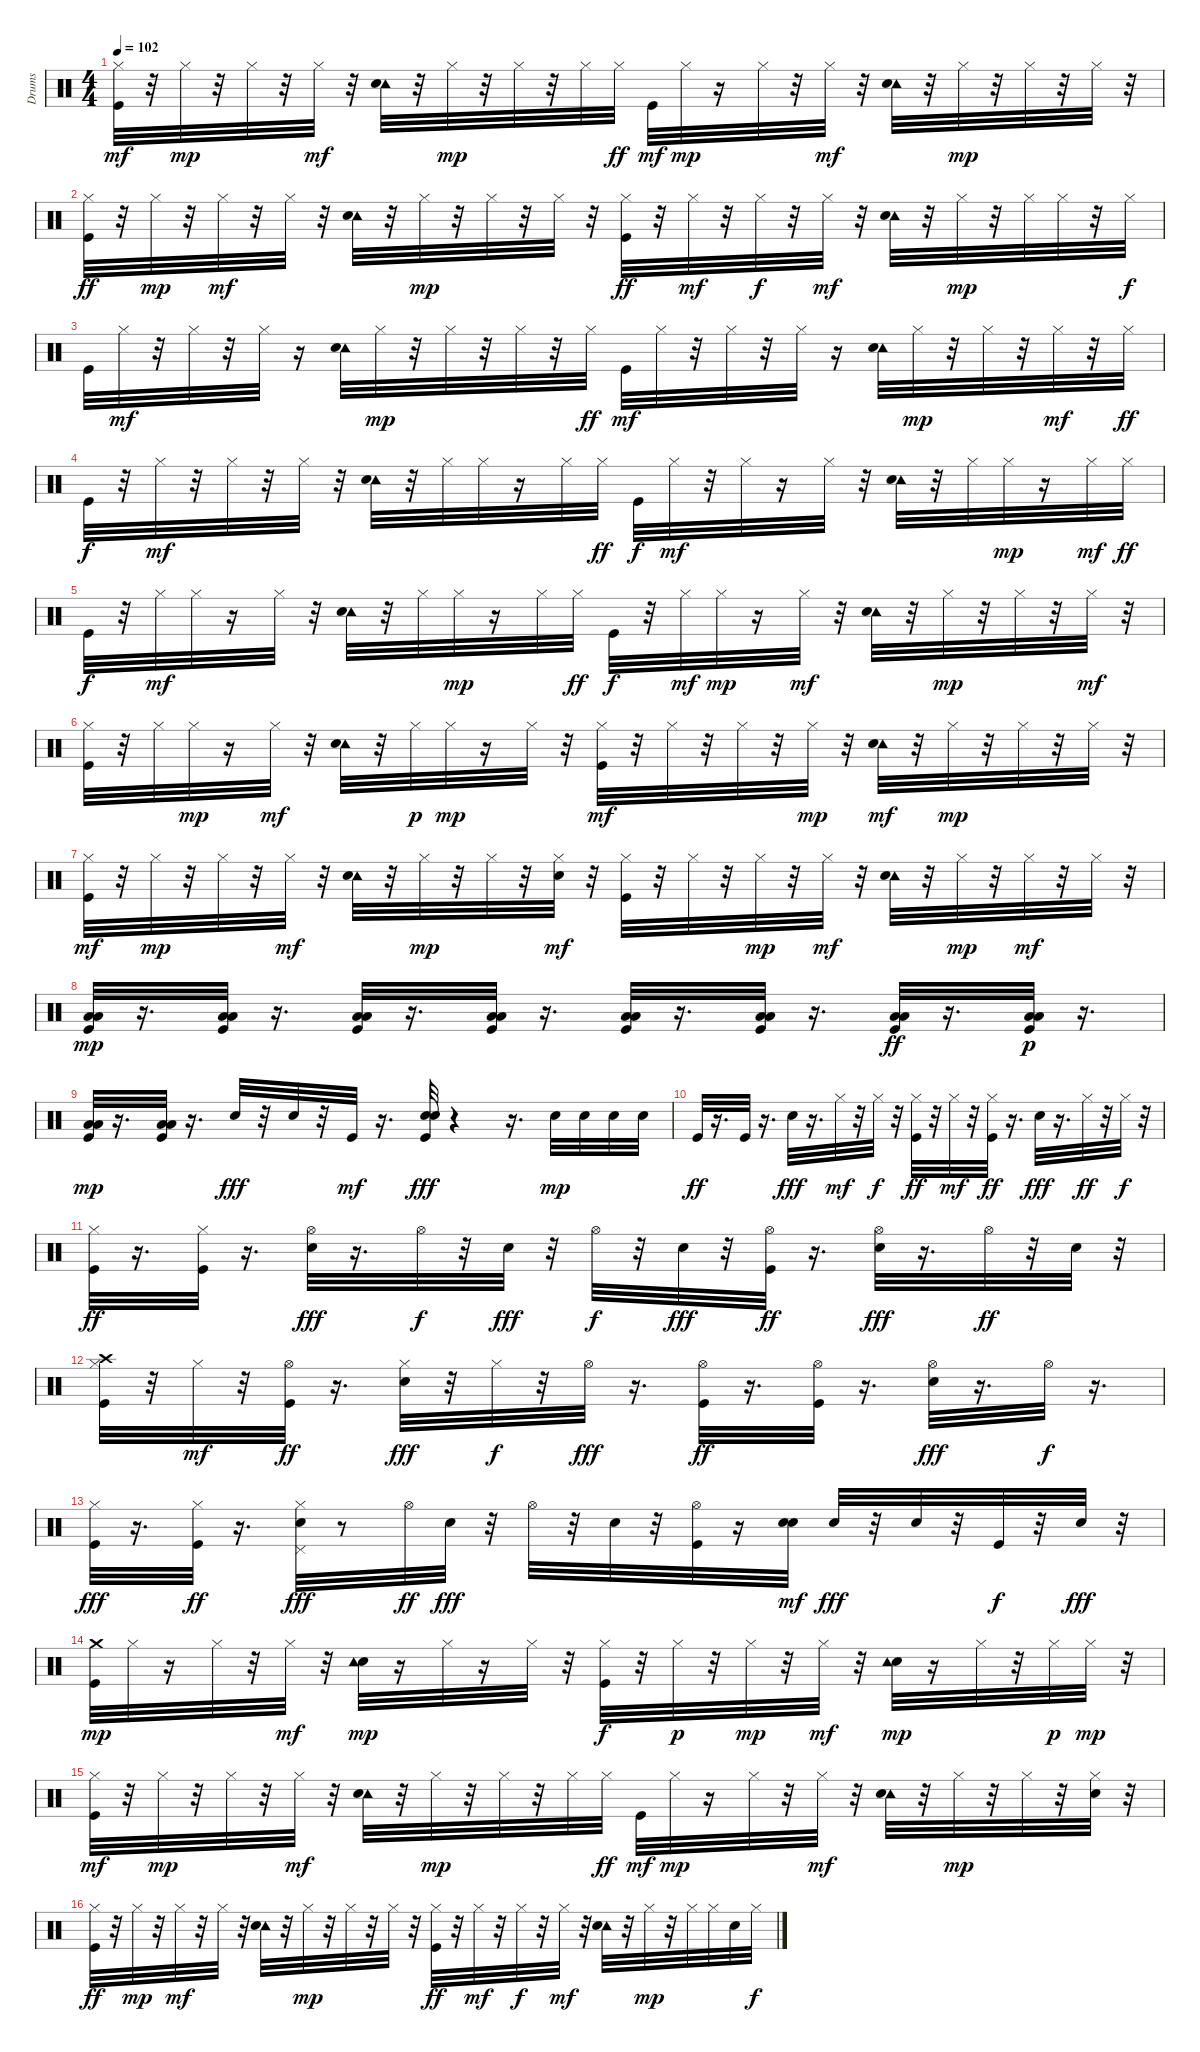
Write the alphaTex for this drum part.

\track ("Drums" "Drums") {instrument percussion}
\staff {score}
\articulation defaults
\ts (4 4)
\tempo 102
\clef neutral
\ks c
("Hi-Hat (closed)" "Kick (hit)").32{dy mf} r.32 "Hi-Hat (closed)".32{dy mp} r.32 "Hi-Hat (closed)".32 r.32 "Hi-Hat (closed)".32{dy mf} r.32 ("Tambourine (hit)" "Electric Snare (hit)").32 r.32 "Hi-Hat (closed)".32{dy mp} r.32 "Hi-Hat (closed)".32 r.32 "Hi-Hat (closed)".32 "Hi-Hat (closed)".32{dy ff} "Kick (hit)".32{dy mf} "Hi-Hat (closed)".32{dy mp} r.16 "Hi-Hat (closed)".32 r.32 "Hi-Hat (closed)".32{dy mf} r.32 ("Tambourine (hit)" "Electric Snare (hit)").32 r.32 "Hi-Hat (closed)".32{dy mp} r.32 "Hi-Hat (closed)".32 r.32 "Hi-Hat (closed)".32 r.32 |
("Kick (hit)" "Hi-Hat (closed)").32{dy ff} r.32 "Hi-Hat (closed)".32{dy mp} r.32 "Hi-Hat (closed)".32{dy mf} r.32 "Hi-Hat (closed)".32 r.32 ("Tambourine (hit)" "Electric Snare (hit)").32 r.32 "Hi-Hat (closed)".32{dy mp} r.32 "Hi-Hat (closed)".32 r.32 "Hi-Hat (closed)".32 r.32 ("Kick (hit)" "Hi-Hat (closed)").32{dy ff} r.32 "Hi-Hat (closed)".32{dy mf} r.32 "Hi-Hat (closed)".32{dy f} r.32 "Hi-Hat (closed)".32{dy mf} r.32 ("Tambourine (hit)" "Electric Snare (hit)").32 r.32 "Hi-Hat (closed)".32{dy mp} r.32 "Hi-Hat (closed)".32 "Hi-Hat (closed)".32 r.32 "Hi-Hat (closed)".32{dy f} |
"Kick (hit)".32 "Hi-Hat (closed)".32{dy mf} r.32 "Hi-Hat (closed)".32 r.32 "Hi-Hat (closed)".32 r.16 ("Tambourine (hit)" "Electric Snare (hit)").32 "Hi-Hat (closed)".32{dy mp} r.32 "Hi-Hat (closed)".32 r.32 "Hi-Hat (closed)".32 r.32 "Hi-Hat (closed)".32{dy ff} "Kick (hit)".32{dy mf} "Hi-Hat (closed)".32 r.32 "Hi-Hat (closed)".32 r.32 "Hi-Hat (closed)".32 r.16 ("Tambourine (hit)" "Electric Snare (hit)").32 "Hi-Hat (closed)".32{dy mp} r.32 "Hi-Hat (closed)".32 r.32 "Hi-Hat (closed)".32{dy mf} r.32 "Hi-Hat (closed)".32{dy ff} |
"Kick (hit)".32{dy f} r.32 "Hi-Hat (closed)".32{dy mf} r.32 "Hi-Hat (closed)".32 r.32 "Hi-Hat (closed)".32 r.32 ("Tambourine (hit)" "Electric Snare (hit)").32 r.32 "Hi-Hat (closed)".32 "Hi-Hat (closed)".32 r.16 "Hi-Hat (closed)".32 "Hi-Hat (closed)".32{dy ff} "Kick (hit)".32{dy f} "Hi-Hat (closed)".32{dy mf} r.32 "Hi-Hat (closed)".32 r.16 "Hi-Hat (closed)".32 r.32 ("Tambourine (hit)" "Electric Snare (hit)").32 r.32 "Hi-Hat (closed)".32 "Hi-Hat (closed)".32{dy mp} r.16 "Hi-Hat (closed)".32{dy mf} "Hi-Hat (closed)".32{dy ff} |
"Kick (hit)".32{dy f} r.32 "Hi-Hat (closed)".32{dy mf} "Hi-Hat (closed)".32 r.16 "Hi-Hat (closed)".32 r.32 ("Tambourine (hit)" "Electric Snare (hit)").32 r.32 "Hi-Hat (closed)".32 "Hi-Hat (closed)".32{dy mp} r.16 "Hi-Hat (closed)".32 "Hi-Hat (closed)".32{dy ff} "Kick (hit)".32{dy f} r.32 "Hi-Hat (closed)".32{dy mf} "Hi-Hat (closed)".32{dy mp} r.16 "Hi-Hat (closed)".32{dy mf} r.32 ("Tambourine (hit)" "Electric Snare (hit)").32 r.32 "Hi-Hat (closed)".32{dy mp} r.32 "Hi-Hat (closed)".32 r.32 "Hi-Hat (closed)".32{dy mf} r.32 |
("Hi-Hat (closed)" "Kick (hit)").32 r.32 "Hi-Hat (closed)".32 "Hi-Hat (closed)".32{dy mp} r.16 "Hi-Hat (closed)".32{dy mf} r.32 ("Tambourine (hit)" "Electric Snare (hit)").32 r.32 "Hi-Hat (closed)".32{dy p} "Hi-Hat (closed)".32{dy mp} r.16 "Hi-Hat (closed)".32 r.32 ("Hi-Hat (closed)" "Kick (hit)").32{dy mf} r.32 "Hi-Hat (closed)".32 r.32 "Hi-Hat (closed)".32 r.32 "Hi-Hat (closed)".32{dy mp} r.32 ("Tambourine (hit)" "Electric Snare (hit)").32{dy mf} r.32 "Hi-Hat (closed)".32{dy mp} r.32 "Hi-Hat (closed)".32 r.32 "Hi-Hat (closed)".32 r.32 |
("Hi-Hat (closed)" "Kick (hit)").32{dy mf} r.32 "Hi-Hat (closed)".32{dy mp} r.32 "Hi-Hat (closed)".32 r.32 "Hi-Hat (closed)".32{dy mf} r.32 ("Tambourine (hit)" "Electric Snare (hit)").32 r.32 "Hi-Hat (closed)".32{dy mp} r.32 "Hi-Hat (closed)".32 r.32 ("Hi-Hat (closed)" "Electric Snare (hit)").32{dy mf} r.32 ("Hi-Hat (closed)" "Kick (hit)").32 r.32 "Hi-Hat (closed)".32 r.32 "Hi-Hat (closed)".32{dy mp} r.32 "Hi-Hat (closed)".32{dy mf} r.32 ("Tambourine (hit)" "Electric Snare (hit)").32 r.32 "Hi-Hat (closed)".32{dy mp} r.32 "Hi-Hat (closed)".32{dy mf} r.32 "Hi-Hat (closed)".32 r.32 |
("Low Tom (hit)" "Kick (hit)" "Low Floor Tom (hit)").32{dy mp} r.16{d} ("Low Tom (hit)" "Kick (hit)" "Low Floor Tom (hit)").32 r.16{d} ("Low Tom (hit)" "Kick (hit)" "Low Floor Tom (hit)").32 r.16{d} ("Low Tom (hit)" "Kick (hit)" "Low Floor Tom (hit)").32 r.16{d} ("Kick (hit)" "Low Tom (hit)" "Low Floor Tom (hit)").32 r.16{d} ("Low Tom (hit)" "Kick (hit)" "Low Floor Tom (hit)").32 r.16{d} ("Low Tom (hit)" "Kick (hit)" "Low Floor Tom (hit)").32{dy ff} r.16{d} ("Kick (hit)" "Low Tom (hit)" "Low Floor Tom (hit)").32{dy p} r.16{d} |
("Low Tom (hit)" "Kick (hit)" "Low Floor Tom (hit)").32{dy mp} r.16{d} ("Kick (hit)" "Low Tom (hit)" "Low Floor Tom (hit)").32 r.16{d} "Electric Snare (hit)".32{dy fff} r.32 "Electric Snare (hit)".32 r.32 "Kick (hit)".32{dy mf} r.16{d} ("Electric Snare (hit)" "Kick (hit)" "Electric Snare (hit)").32{dy fff} r.4 r.16{d} "Snare (hit) 2".32{dy mp} "Snare (hit) 2".32 "Snare (hit) 2".32 "Snare (hit) 2".32 |
"Kick (hit)".32{dy ff} r.16{d} "Kick (hit)".32 r.16{d} "Electric Snare (hit)".32{dy fff} r.16{d} "Hi-Hat (closed)".32{dy mf} r.32 "Hi-Hat (closed)".32{dy f} r.32 ("Kick (hit)" "Hi-Hat (closed)").32{dy ff} r.32 "Hi-Hat (closed)".32{dy mf} r.32 ("Hi-Hat (closed)" "Kick (hit)").32{dy ff} r.16{d} "Electric Snare (hit)".32{dy fff} r.16{d} "Hi-Hat (closed)".32{dy ff} r.32 "Hi-Hat (closed)".32{dy f} r.32 |
("Hi-Hat (closed)" "Kick (hit)").32{dy ff} r.16{d} ("Hi-Hat (closed)" "Kick (hit)").32 r.16{d} ("Hi-Hat (open)" "Electric Snare (hit)").32{dy fff} r.16{d} "Hi-Hat (open)".32{dy f} r.32 "Electric Snare (hit)".32{dy fff} r.32 "Hi-Hat (open)".32{dy f} r.32 "Electric Snare (hit)".32{dy fff} r.32 ("Hi-Hat (open)" "Kick (hit)").32{dy ff} r.16{d} ("Electric Snare (hit)" "Hi-Hat (open)").32{dy fff} r.16{d} "Hi-Hat (open)".32{dy ff} r.32 "Electric Snare (hit)".32 r.32 |
("Kick (hit)" "Hi-Hat (closed)" "Crash high (hit)").32 r.32 "Hi-Hat (closed)".32{dy mf} r.32 ("Hi-Hat (open)" "Kick (hit)").32{dy ff} r.16{d} ("Hi-Hat (closed)" "Electric Snare (hit)").32{dy fff} r.32 "Hi-Hat (closed)".32{dy f} r.32 "Hi-Hat (open)".32{dy fff} r.16{d} ("Hi-Hat (open)" "Kick (hit)").32{dy ff} r.16{d} ("Hi-Hat (open)" "Kick (hit)").32 r.16{d} ("Hi-Hat (open)" "Electric Snare (hit)").32{dy fff} r.16{d} "Hi-Hat (open)".32{dy f} r.16{d} |
("Hi-Hat (closed)" "Kick (hit)").32{dy fff} r.16{d} ("Hi-Hat (closed)" "Kick (hit)").32{dy ff} r.16{d} ("Pedal Hi-Hat (hit)" "Hi-Hat (closed)" "Electric Snare (hit)").32{dy fff} r.8 "Hi-Hat (open)".32{dy ff} "Electric Snare (hit)".32{dy fff} r.32 "Hi-Hat (open)".32 r.32 "Electric Snare (hit)".32 r.32 ("Kick (hit)" "Hi-Hat (open)").32 r.16 ("Snare (hit) 2" "Snare (hit) 2").32{dy mf} "Electric Snare (hit)".32{dy fff} r.32 "Electric Snare (hit)".32 r.32 "Kick (hit)".32{dy f} r.32 "Electric Snare (hit)".32{dy fff} r.32 |
("Kick (hit)" "Crash medium (hit)").32{dy mp} "Hi-Hat (closed)".32 r.16 "Hi-Hat (closed)".32 r.32 "Hi-Hat (closed)".32{dy mf} r.32 ("Electric Snare (hit)" "Tambourine (hit)").32{dy mp} r.16 "Hi-Hat (closed)".32 r.16 "Hi-Hat (closed)".32 r.32 ("Kick (hit)" "Hi-Hat (closed)").32{dy f} r.32 "Hi-Hat (closed)".32{dy p} r.32 "Hi-Hat (closed)".32{dy mp} r.32 "Hi-Hat (closed)".32{dy mf} r.32 ("Electric Snare (hit)" "Tambourine (hit)").32{dy mp} r.16 "Hi-Hat (closed)".32 r.32 "Hi-Hat (closed)".32{dy p} "Hi-Hat (closed)".32{dy mp} r.32 |
("Hi-Hat (closed)" "Kick (hit)").32{dy mf} r.32 "Hi-Hat (closed)".32{dy mp} r.32 "Hi-Hat (closed)".32 r.32 "Hi-Hat (closed)".32{dy mf} r.32 ("Tambourine (hit)" "Electric Snare (hit)").32 r.32 "Hi-Hat (closed)".32{dy mp} r.32 "Hi-Hat (closed)".32 r.32 "Hi-Hat (closed)".32 "Hi-Hat (closed)".32{dy ff} "Kick (hit)".32{dy mf} "Hi-Hat (closed)".32{dy mp} r.16 "Hi-Hat (closed)".32 r.32 "Hi-Hat (closed)".32{dy mf} r.32 ("Tambourine (hit)" "Electric Snare (hit)").32 r.32 "Hi-Hat (closed)".32{dy mp} r.32 "Hi-Hat (closed)".32 r.32 ("Hi-Hat (closed)" "Snare (hit) 2").32 r.32 |
("Kick (hit)" "Hi-Hat (closed)").32{dy ff} r.32 "Hi-Hat (closed)".32{dy mp} r.32 "Hi-Hat (closed)".32{dy mf} r.32 "Hi-Hat (closed)".32 r.32 ("Tambourine (hit)" "Electric Snare (hit)").32 r.32 "Hi-Hat (closed)".32{dy mp} r.32 "Hi-Hat (closed)".32 r.32 "Hi-Hat (closed)".32 r.32 ("Kick (hit)" "Hi-Hat (closed)").32{dy ff} r.32 "Hi-Hat (closed)".32{dy mf} r.32 "Hi-Hat (closed)".32{dy f} r.32 "Hi-Hat (closed)".32{dy mf} r.32 ("Tambourine (hit)" "Electric Snare (hit)").32 r.32 "Hi-Hat (closed)".32{dy mp} r.32 "Hi-Hat (closed)".32 "Hi-Hat (closed)".32 "Snare (hit) 2".32 "Hi-Hat (closed)".32{dy f}
